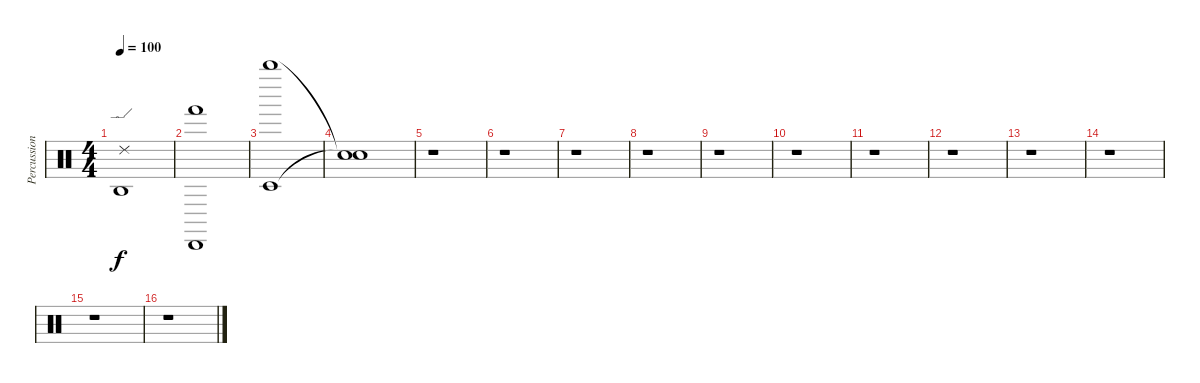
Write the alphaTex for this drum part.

\track ("Percussion Organ" "Percussion") {instrument percussion}
\staff {score}
\articulation defaults
\ts (4 4)
\tempo 100
\clef neutral
\ks c
("Ride (edge) 2" "Agogo high (hit)").1{dy f} |
("Hand (hit)" "Cabasa (hit)").1 |
("Timbale low (hit)" "Whistle high (hit)").1 |
("Snare (hit)"{t} "Snare (hit)"{t}).1 |
r.1 |
r.1 |
r.1 |
r.1 |
r.1 |
r.1 |
r.1 |
r.1 |
r.1 |
r.1 |
r.1 |
r.1
